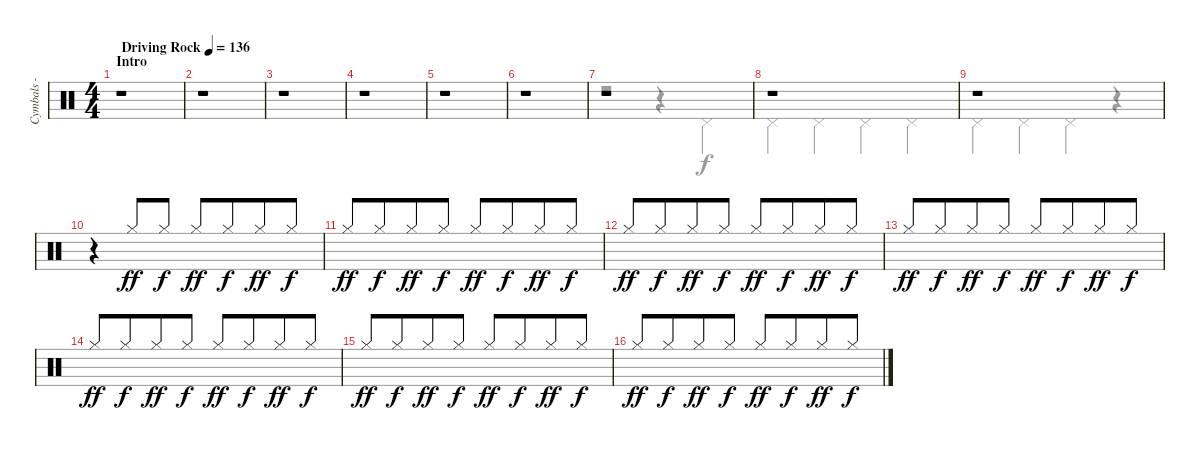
\track ("Cymbals - hi-hat" "Cymbals - ") {instrument percussion}
\staff {score}
\articulation defaults
\voice
\ts (4 4)
\section ("" "Intro")
\tempo (136 "Driving Rock")
\clef neutral
\ks c
r.1{dy ff volume 2 balance 11} |
r.1 |
r.1 |
r.1 |
r.1 |
r.1 |
r.1 |
r.1 |
r.1 |
r.4{beam Up beam merge} "Hi-Hat (closed)".8{beam Up} "Hi-Hat (closed)".8{dy f beam Up} "Hi-Hat (closed)".8{dy ff beam Up} "Hi-Hat (closed)".8{dy f beam Up beam merge} "Hi-Hat (closed)".8{dy ff beam Up} "Hi-Hat (closed)".8{dy f beam Up} |
"Hi-Hat (closed)".8{dy ff beam Up} "Hi-Hat (closed)".8{dy f beam Up beam merge} "Hi-Hat (closed)".8{dy ff beam Up} "Hi-Hat (closed)".8{dy f beam Up} "Hi-Hat (closed)".8{dy ff beam Up} "Hi-Hat (closed)".8{dy f beam Up beam merge} "Hi-Hat (closed)".8{dy ff beam Up} "Hi-Hat (closed)".8{dy f beam Up} |
"Hi-Hat (closed)".8{dy ff beam Up} "Hi-Hat (closed)".8{dy f beam Up beam merge} "Hi-Hat (closed)".8{dy ff beam Up} "Hi-Hat (closed)".8{dy f beam Up} "Hi-Hat (closed)".8{dy ff beam Up} "Hi-Hat (closed)".8{dy f beam Up beam merge} "Hi-Hat (closed)".8{dy ff beam Up} "Hi-Hat (closed)".8{dy f beam Up} |
"Hi-Hat (closed)".8{dy ff beam Up} "Hi-Hat (closed)".8{dy f beam Up beam merge} "Hi-Hat (closed)".8{dy ff beam Up} "Hi-Hat (closed)".8{dy f beam Up} "Hi-Hat (closed)".8{dy ff beam Up} "Hi-Hat (closed)".8{dy f beam Up beam merge} "Hi-Hat (closed)".8{dy ff beam Up} "Hi-Hat (closed)".8{dy f beam Up} |
"Hi-Hat (closed)".8{dy ff beam Up} "Hi-Hat (closed)".8{dy f beam Up beam merge} "Hi-Hat (closed)".8{dy ff beam Up} "Hi-Hat (closed)".8{dy f beam Up} "Hi-Hat (closed)".8{dy ff beam Up} "Hi-Hat (closed)".8{dy f beam Up beam merge} "Hi-Hat (closed)".8{dy ff beam Up} "Hi-Hat (closed)".8{dy f beam Up} |
"Hi-Hat (closed)".8{dy ff beam Up} "Hi-Hat (closed)".8{dy f beam Up beam merge} "Hi-Hat (closed)".8{dy ff beam Up} "Hi-Hat (closed)".8{dy f beam Up} "Hi-Hat (closed)".8{dy ff beam Up} "Hi-Hat (closed)".8{dy f beam Up beam merge} "Hi-Hat (closed)".8{dy ff beam Up} "Hi-Hat (closed)".8{dy f beam Up} |
"Hi-Hat (closed)".8{dy ff beam Up} "Hi-Hat (closed)".8{dy f beam Up beam merge} "Hi-Hat (closed)".8{dy ff beam Up} "Hi-Hat (closed)".8{dy f beam Up} "Hi-Hat (closed)".8{dy ff beam Up} "Hi-Hat (closed)".8{dy f beam Up beam merge} "Hi-Hat (closed)".8{dy ff beam Up} "Hi-Hat (closed)".8{dy f beam Up}
\voice
\clef neutral
\ottava regular
\simile none
\ks c
|
|
|
|
|
|
r.2 r.4 "Pedal Hi-Hat (hit)".4 |
"Pedal Hi-Hat (hit)".4 "Pedal Hi-Hat (hit)".4 "Pedal Hi-Hat (hit)".4 "Pedal Hi-Hat (hit)".4 |
"Pedal Hi-Hat (hit)".4 "Pedal Hi-Hat (hit)".4 "Pedal Hi-Hat (hit)".4 r.4 |
|
|
|
|
|
|
